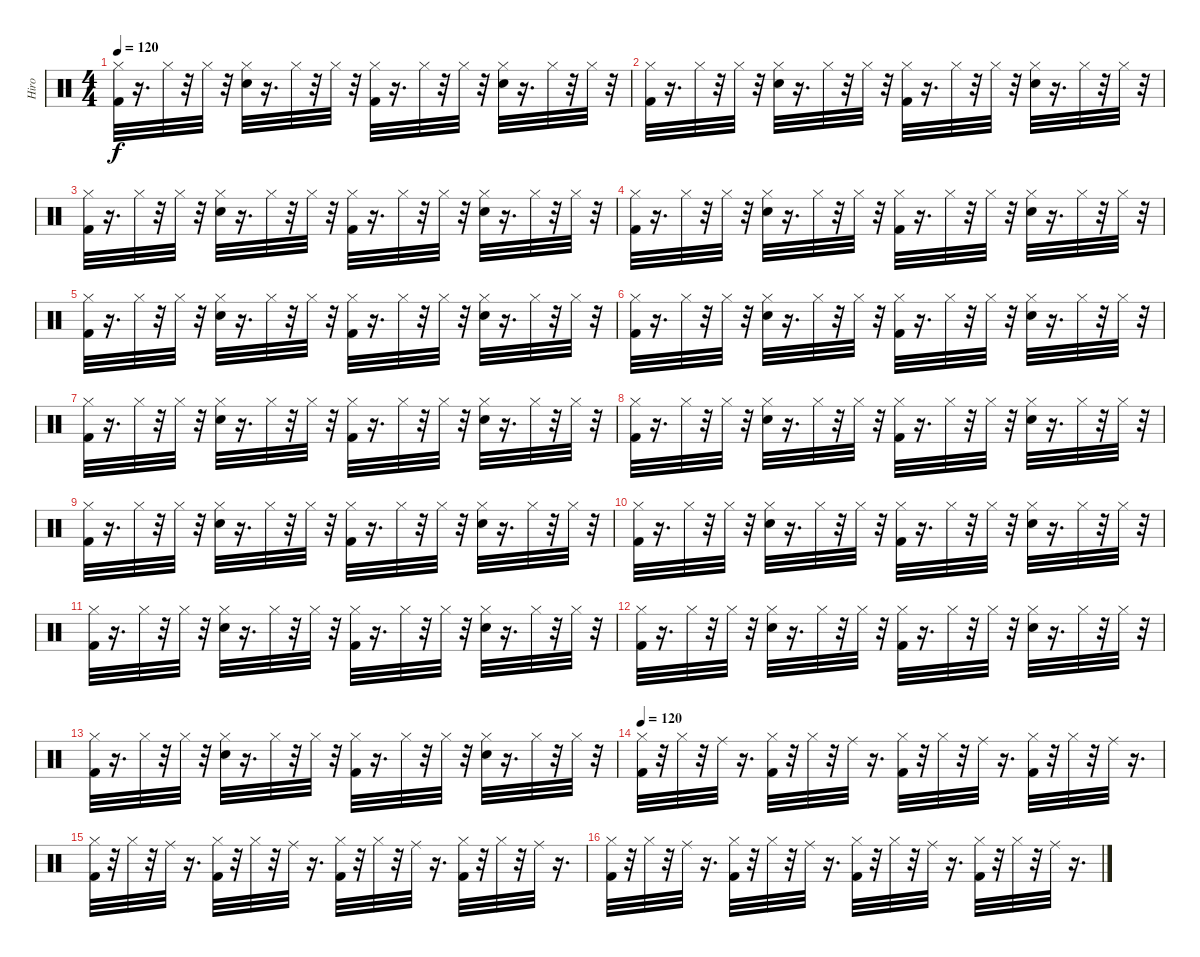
\track ("Hiro" "Hiro") {instrument percussion}
\staff {score}
\articulation defaults
\ts (4 4)
\tempo 120
\clef neutral
\ks c
("Kick (hit) 2" "Hi-Hat (closed)").32{dy f} r.16{d} "Hi-Hat (closed)".32 r.32 "Hi-Hat (closed)".32 r.32 ("Hi-Hat (closed)" "Snare (hit) 2").32 r.16{d} "Hi-Hat (closed)".32 r.32 "Hi-Hat (closed)".32 r.32 ("Hi-Hat (closed)" "Kick (hit) 2").32 r.16{d} "Hi-Hat (closed)".32 r.32 "Hi-Hat (closed)".32 r.32 ("Hi-Hat (closed)" "Snare (hit) 2").32 r.16{d} "Hi-Hat (closed)".32 r.32 "Hi-Hat (closed)".32 r.32 |
("Kick (hit) 2" "Hi-Hat (closed)").32 r.16{d} "Hi-Hat (closed)".32 r.32 "Hi-Hat (closed)".32 r.32 ("Hi-Hat (closed)" "Snare (hit) 2").32 r.16{d} "Hi-Hat (closed)".32 r.32 "Hi-Hat (closed)".32 r.32 ("Hi-Hat (closed)" "Kick (hit) 2").32 r.16{d} "Hi-Hat (closed)".32 r.32 "Hi-Hat (closed)".32 r.32 ("Hi-Hat (closed)" "Snare (hit) 2").32 r.16{d} "Hi-Hat (closed)".32 r.32 "Hi-Hat (closed)".32 r.32 |
("Kick (hit) 2" "Hi-Hat (closed)").32 r.16{d} "Hi-Hat (closed)".32 r.32 "Hi-Hat (closed)".32 r.32 ("Hi-Hat (closed)" "Snare (hit) 2").32 r.16{d} "Hi-Hat (closed)".32 r.32 "Hi-Hat (closed)".32 r.32 ("Hi-Hat (closed)" "Kick (hit) 2").32 r.16{d} "Hi-Hat (closed)".32 r.32 "Hi-Hat (closed)".32 r.32 ("Hi-Hat (closed)" "Snare (hit) 2").32 r.16{d} "Hi-Hat (closed)".32 r.32 "Hi-Hat (closed)".32 r.32 |
("Kick (hit) 2" "Hi-Hat (closed)").32 r.16{d} "Hi-Hat (closed)".32 r.32 "Hi-Hat (closed)".32 r.32 ("Hi-Hat (closed)" "Snare (hit) 2").32 r.16{d} "Hi-Hat (closed)".32 r.32 "Hi-Hat (closed)".32 r.32 ("Kick (hit) 2" "Hi-Hat (closed)").32 r.16{d} "Hi-Hat (closed)".32 r.32 "Hi-Hat (closed)".32 r.32 ("Hi-Hat (closed)" "Snare (hit) 2").32 r.16{d} "Hi-Hat (closed)".32 r.32 "Hi-Hat (closed)".32 r.32 |
("Kick (hit) 2" "Hi-Hat (closed)").32 r.16{d} "Hi-Hat (closed)".32 r.32 "Hi-Hat (closed)".32 r.32 ("Hi-Hat (closed)" "Snare (hit) 2").32 r.16{d} "Hi-Hat (closed)".32 r.32 "Hi-Hat (closed)".32 r.32 ("Hi-Hat (closed)" "Kick (hit) 2").32 r.16{d} "Hi-Hat (closed)".32 r.32 "Hi-Hat (closed)".32 r.32 ("Hi-Hat (closed)" "Snare (hit) 2").32 r.16{d} "Hi-Hat (closed)".32 r.32 "Hi-Hat (closed)".32 r.32 |
("Kick (hit) 2" "Hi-Hat (closed)").32 r.16{d} "Hi-Hat (closed)".32 r.32 "Hi-Hat (closed)".32 r.32 ("Hi-Hat (closed)" "Snare (hit) 2").32 r.16{d} "Hi-Hat (closed)".32 r.32 "Hi-Hat (closed)".32 r.32 ("Hi-Hat (closed)" "Kick (hit) 2").32 r.16{d} "Hi-Hat (closed)".32 r.32 "Hi-Hat (closed)".32 r.32 ("Hi-Hat (closed)" "Snare (hit) 2").32 r.16{d} "Hi-Hat (closed)".32 r.32 "Hi-Hat (closed)".32 r.32 |
("Kick (hit) 2" "Hi-Hat (closed)").32 r.16{d} "Hi-Hat (closed)".32 r.32 "Hi-Hat (closed)".32 r.32 ("Hi-Hat (closed)" "Snare (hit) 2").32 r.16{d} "Hi-Hat (closed)".32 r.32 "Hi-Hat (closed)".32 r.32 ("Hi-Hat (closed)" "Kick (hit) 2").32 r.16{d} "Hi-Hat (closed)".32 r.32 "Hi-Hat (closed)".32 r.32 ("Hi-Hat (closed)" "Snare (hit) 2").32 r.16{d} "Hi-Hat (closed)".32 r.32 "Hi-Hat (closed)".32 r.32 |
("Kick (hit) 2" "Hi-Hat (closed)").32 r.16{d} "Hi-Hat (closed)".32 r.32 "Hi-Hat (closed)".32 r.32 ("Hi-Hat (closed)" "Snare (hit) 2").32 r.16{d} "Hi-Hat (closed)".32 r.32 "Hi-Hat (closed)".32 r.32 ("Hi-Hat (closed)" "Kick (hit) 2").32 r.16{d} "Hi-Hat (closed)".32 r.32 "Hi-Hat (closed)".32 r.32 ("Hi-Hat (closed)" "Snare (hit) 2").32 r.16{d} "Hi-Hat (closed)".32 r.32 "Hi-Hat (closed)".32 r.32 |
("Kick (hit) 2" "Hi-Hat (closed)").32 r.16{d} "Hi-Hat (closed)".32 r.32 "Hi-Hat (closed)".32 r.32 ("Hi-Hat (closed)" "Snare (hit) 2").32 r.16{d} "Hi-Hat (closed)".32 r.32 "Hi-Hat (closed)".32 r.32 ("Hi-Hat (closed)" "Kick (hit) 2").32 r.16{d} "Hi-Hat (closed)".32 r.32 "Hi-Hat (closed)".32 r.32 ("Hi-Hat (closed)" "Snare (hit) 2").32 r.16{d} "Hi-Hat (closed)".32 r.32 "Hi-Hat (closed)".32 r.32 |
("Kick (hit) 2" "Hi-Hat (closed)").32 r.16{d} "Hi-Hat (closed)".32 r.32 "Hi-Hat (closed)".32 r.32 ("Hi-Hat (closed)" "Snare (hit) 2").32 r.16{d} "Hi-Hat (closed)".32 r.32 "Hi-Hat (closed)".32 r.32 ("Hi-Hat (closed)" "Kick (hit) 2").32 r.16{d} "Hi-Hat (closed)".32 r.32 "Hi-Hat (closed)".32 r.32 ("Hi-Hat (closed)" "Snare (hit) 2").32 r.16{d} "Hi-Hat (closed)".32 r.32 "Hi-Hat (closed)".32 r.32 |
("Kick (hit) 2" "Hi-Hat (closed)").32 r.16{d} "Hi-Hat (closed)".32 r.32 "Hi-Hat (closed)".32 r.32 ("Hi-Hat (closed)" "Snare (hit) 2").32 r.16{d} "Hi-Hat (closed)".32 r.32 "Hi-Hat (closed)".32 r.32 ("Hi-Hat (closed)" "Kick (hit) 2").32 r.16{d} "Hi-Hat (closed)".32 r.32 "Hi-Hat (closed)".32 r.32 ("Hi-Hat (closed)" "Snare (hit) 2").32 r.16{d} "Hi-Hat (closed)".32 r.32 "Hi-Hat (closed)".32 r.32 |
("Kick (hit) 2" "Hi-Hat (closed)").32 r.16{d} "Hi-Hat (closed)".32 r.32 "Hi-Hat (closed)".32 r.32 ("Hi-Hat (closed)" "Snare (hit) 2").32 r.16{d} "Hi-Hat (closed)".32 r.32 "Hi-Hat (closed)".32 r.32 ("Hi-Hat (closed)" "Kick (hit) 2").32 r.16{d} "Hi-Hat (closed)".32 r.32 "Hi-Hat (closed)".32 r.32 ("Hi-Hat (closed)" "Snare (hit) 2").32 r.16{d} "Hi-Hat (closed)".32 r.32 "Hi-Hat (closed)".32 r.32 |
("Kick (hit) 2" "Hi-Hat (closed)").32 r.16{d} "Hi-Hat (closed)".32 r.32 "Hi-Hat (closed)".32 r.32 ("Hi-Hat (closed)" "Snare (hit) 2").32 r.16{d} "Hi-Hat (closed)".32 r.32 "Hi-Hat (closed)".32 r.32 ("Hi-Hat (closed)" "Kick (hit) 2").32 r.16{d} "Hi-Hat (closed)".32 r.32 "Hi-Hat (closed)".32 r.32 ("Hi-Hat (closed)" "Snare (hit) 2").32 r.16{d} "Hi-Hat (closed)".32 r.32 "Hi-Hat (closed)".32 r.32 |
\tempo 120
("Kick (hit) 2" "Hi-Hat (closed)").32 r.32 "Hi-Hat (closed)".32 r.32 "Ride (middle)".32 r.16{d} ("Kick (hit) 2" "Hi-Hat (closed)").32 r.32 "Hi-Hat (closed)".32 r.32 "Ride (middle)".32 r.16{d} ("Kick (hit) 2" "Hi-Hat (closed)").32 r.32 "Hi-Hat (closed)".32 r.32 "Ride (middle)".32 r.16{d} ("Kick (hit) 2" "Hi-Hat (closed)").32 r.32 "Hi-Hat (closed)".32 r.32 "Ride (middle)".32 r.16{d} |
("Kick (hit) 2" "Hi-Hat (closed)").32 r.32 "Hi-Hat (closed)".32 r.32 "Ride (middle)".32 r.16{d} ("Kick (hit) 2" "Hi-Hat (closed)").32 r.32 "Hi-Hat (closed)".32 r.32 "Ride (middle)".32 r.16{d} ("Kick (hit) 2" "Hi-Hat (closed)").32 r.32 "Hi-Hat (closed)".32 r.32 "Ride (middle)".32 r.16{d} ("Kick (hit) 2" "Hi-Hat (closed)").32 r.32 "Hi-Hat (closed)".32 r.32 "Ride (middle)".32 r.16{d} |
("Kick (hit) 2" "Hi-Hat (closed)").32 r.32 "Hi-Hat (closed)".32 r.32 "Ride (middle)".32 r.16{d} ("Kick (hit) 2" "Hi-Hat (closed)").32 r.32 "Hi-Hat (closed)".32 r.32 "Ride (middle)".32 r.16{d} ("Kick (hit) 2" "Hi-Hat (closed)").32 r.32 "Hi-Hat (closed)".32 r.32 "Ride (middle)".32 r.16{d} ("Kick (hit) 2" "Hi-Hat (closed)").32 r.32 "Hi-Hat (closed)".32 r.32 "Ride (middle)".32 r.16{d}
